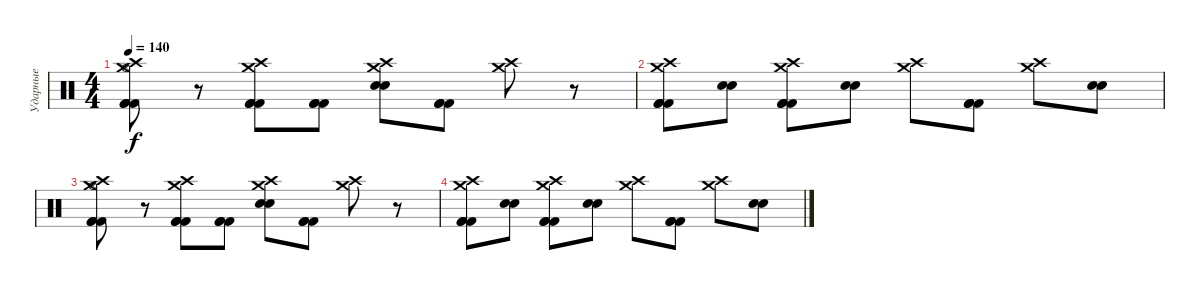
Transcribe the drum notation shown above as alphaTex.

\track ("Ударные" "Ударные") {instrument percussion}
\staff {score}
\articulation defaults
\ts (4 4)
\tempo 140
\clef neutral
\ks c
("Crash high (hit)" "Crash medium (hit)" "Hi-Hat (open)" "Kick (hit) 2" "Kick (hit) 2" "Kick (hit) 2").8{dy f} r.8 ("Crash high (hit)" "Crash medium (hit)" "Kick (hit) 2" "Kick (hit) 2" "Kick (hit) 2").8 ("Kick (hit) 2" "Kick (hit) 2" "Kick (hit) 2").8 ("Crash high (hit)" "Crash medium (hit)" "Electric Snare (hit)" "Electric Snare (hit)").8 ("Kick (hit) 2" "Kick (hit) 2" "Kick (hit) 2").8 ("Crash high (hit)" "Crash medium (hit)").8 r.8 |
("Crash high (hit)" "Crash medium (hit)" "Kick (hit) 2" "Kick (hit) 2" "Kick (hit) 2").8 ("Electric Snare (hit)" "Electric Snare (hit)").8 ("Crash high (hit)" "Crash medium (hit)" "Kick (hit) 2" "Kick (hit) 2" "Kick (hit) 2").8 ("Electric Snare (hit)" "Electric Snare (hit)").8 ("Crash high (hit)" "Crash medium (hit)").8 ("Kick (hit) 2" "Kick (hit) 2" "Kick (hit) 2").8 ("Crash high (hit)" "Crash medium (hit)").8 ("Electric Snare (hit)" "Electric Snare (hit)").8 |
("Crash high (hit)" "Crash medium (hit)" "Hi-Hat (open)" "Kick (hit) 2" "Kick (hit) 2" "Kick (hit) 2").8 r.8 ("Crash high (hit)" "Crash medium (hit)" "Kick (hit) 2" "Kick (hit) 2" "Kick (hit) 2").8 ("Kick (hit) 2" "Kick (hit) 2" "Kick (hit) 2").8 ("Crash high (hit)" "Crash medium (hit)" "Electric Snare (hit)" "Electric Snare (hit)").8 ("Kick (hit) 2" "Kick (hit) 2" "Kick (hit) 2").8 ("Crash high (hit)" "Crash medium (hit)").8 r.8 |
("Crash high (hit)" "Crash medium (hit)" "Kick (hit) 2" "Kick (hit) 2" "Kick (hit) 2").8 ("Electric Snare (hit)" "Electric Snare (hit)").8 ("Crash high (hit)" "Crash medium (hit)" "Kick (hit) 2" "Kick (hit) 2" "Kick (hit) 2").8 ("Electric Snare (hit)" "Electric Snare (hit)").8 ("Crash high (hit)" "Crash medium (hit)").8 ("Kick (hit) 2" "Kick (hit) 2" "Kick (hit) 2").8 ("Crash high (hit)" "Crash medium (hit)").8 ("Electric Snare (hit)" "Electric Snare (hit)").8
